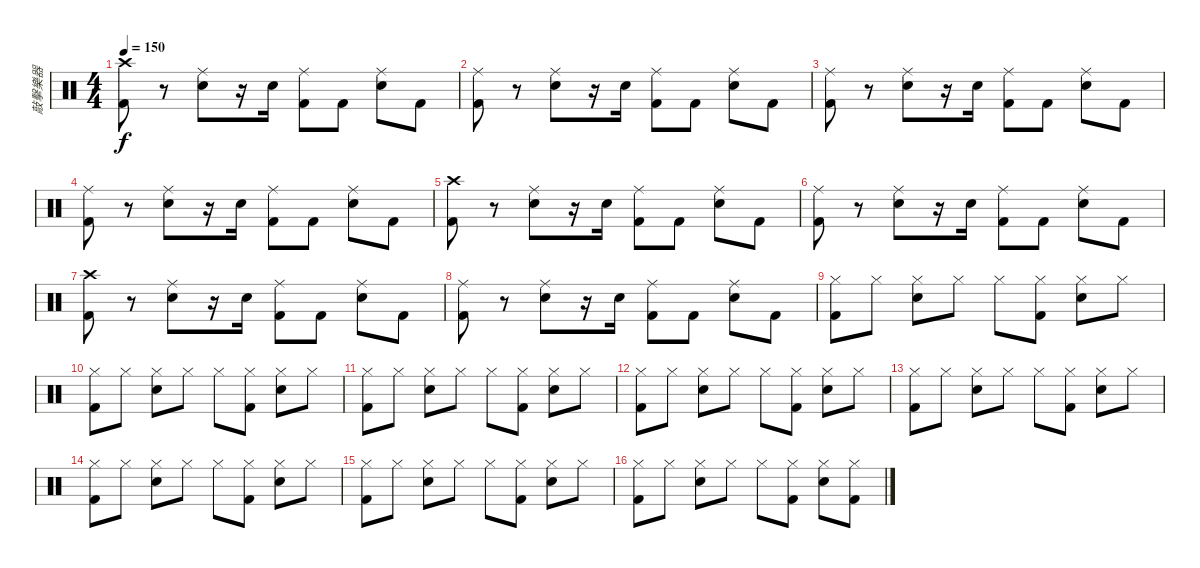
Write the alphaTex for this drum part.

\track ("敲擊樂器" "敲擊樂器") {instrument percussion}
\staff {score}
\articulation defaults
\ts (4 4)
\tempo 150
\clef neutral
\ks c
("Crash high (hit)" "Kick (hit) 2").8{dy f} r.8 ("Ride (middle)" "Electric Snare (hit)").8 r.16 "Electric Snare (hit)".16 ("Ride (middle)" "Kick (hit) 2").8 "Kick (hit) 2".8 ("Ride (middle)" "Electric Snare (hit)").8 "Kick (hit) 2".8 |
("Ride (middle)" "Kick (hit) 2").8 r.8 ("Ride (middle)" "Electric Snare (hit)").8 r.16 "Electric Snare (hit)".16 ("Ride (middle)" "Kick (hit) 2").8 "Kick (hit) 2".8 ("Ride (middle)" "Electric Snare (hit)").8 "Kick (hit) 2".8 |
("Ride (middle)" "Kick (hit) 2").8 r.8 ("Ride (middle)" "Electric Snare (hit)").8 r.16 "Electric Snare (hit)".16 ("Ride (middle)" "Kick (hit) 2").8 "Kick (hit) 2".8 ("Ride (middle)" "Electric Snare (hit)").8 "Kick (hit) 2".8 |
("Ride (middle)" "Kick (hit) 2").8 r.8 ("Ride (middle)" "Electric Snare (hit)").8 r.16 "Electric Snare (hit)".16 ("Ride (middle)" "Kick (hit) 2").8 "Kick (hit) 2".8 ("Ride (middle)" "Electric Snare (hit)").8 "Kick (hit) 2".8 |
("Crash high (hit)" "Kick (hit) 2").8 r.8 ("Ride (middle)" "Electric Snare (hit)").8 r.16 "Electric Snare (hit)".16 ("Ride (middle)" "Kick (hit) 2").8 "Kick (hit) 2".8 ("Ride (middle)" "Electric Snare (hit)").8 "Kick (hit) 2".8 |
("Ride (middle)" "Kick (hit) 2").8 r.8 ("Ride (middle)" "Electric Snare (hit)").8 r.16 "Electric Snare (hit)".16 ("Ride (middle)" "Kick (hit) 2").8 "Kick (hit) 2".8 ("Ride (middle)" "Electric Snare (hit)").8 "Kick (hit) 2".8 |
("Crash high (hit)" "Kick (hit) 2").8 r.8 ("Ride (middle)" "Electric Snare (hit)").8 r.16 "Electric Snare (hit)".16 ("Ride (middle)" "Kick (hit) 2").8 "Kick (hit) 2".8 ("Ride (middle)" "Electric Snare (hit)").8 "Kick (hit) 2".8 |
("Ride (middle)" "Kick (hit) 2").8 r.8 ("Ride (middle)" "Electric Snare (hit)").8 r.16 "Electric Snare (hit)".16 ("Ride (middle)" "Kick (hit) 2").8 "Kick (hit) 2".8 ("Ride (middle)" "Electric Snare (hit)").8 "Kick (hit) 2".8 |
("Hi-Hat (closed)" "Kick (hit) 2").8 "Hi-Hat (closed)".8 ("Hi-Hat (closed)" "Electric Snare (hit)").8 "Hi-Hat (closed)".8 "Hi-Hat (closed)".8 ("Hi-Hat (closed)" "Kick (hit) 2").8 ("Hi-Hat (closed)" "Electric Snare (hit)").8 "Hi-Hat (closed)".8 |
("Hi-Hat (closed)" "Kick (hit) 2").8 "Hi-Hat (closed)".8 ("Hi-Hat (closed)" "Electric Snare (hit)").8 "Hi-Hat (closed)".8 "Hi-Hat (closed)".8 ("Hi-Hat (closed)" "Kick (hit) 2").8 ("Hi-Hat (closed)" "Electric Snare (hit)").8 "Hi-Hat (closed)".8 |
("Hi-Hat (closed)" "Kick (hit) 2").8 "Hi-Hat (closed)".8 ("Hi-Hat (closed)" "Electric Snare (hit)").8 "Hi-Hat (closed)".8 "Hi-Hat (closed)".8 ("Hi-Hat (closed)" "Kick (hit) 2").8 ("Hi-Hat (closed)" "Electric Snare (hit)").8 "Hi-Hat (closed)".8 |
("Hi-Hat (closed)" "Kick (hit) 2").8 "Hi-Hat (closed)".8 ("Hi-Hat (closed)" "Electric Snare (hit)").8 "Hi-Hat (closed)".8 "Hi-Hat (closed)".8 ("Hi-Hat (closed)" "Kick (hit) 2").8 ("Hi-Hat (closed)" "Electric Snare (hit)").8 "Hi-Hat (closed)".8 |
("Hi-Hat (closed)" "Kick (hit) 2").8 "Hi-Hat (closed)".8 ("Hi-Hat (closed)" "Electric Snare (hit)").8 "Hi-Hat (closed)".8 "Hi-Hat (closed)".8 ("Hi-Hat (closed)" "Kick (hit) 2").8 ("Hi-Hat (closed)" "Electric Snare (hit)").8 "Hi-Hat (closed)".8 |
("Hi-Hat (closed)" "Kick (hit) 2").8 "Hi-Hat (closed)".8 ("Hi-Hat (closed)" "Electric Snare (hit)").8 "Hi-Hat (closed)".8 "Hi-Hat (closed)".8 ("Hi-Hat (closed)" "Kick (hit) 2").8 ("Hi-Hat (closed)" "Electric Snare (hit)").8 "Hi-Hat (closed)".8 |
("Hi-Hat (closed)" "Kick (hit) 2").8 "Hi-Hat (closed)".8 ("Hi-Hat (closed)" "Electric Snare (hit)").8 "Hi-Hat (closed)".8 "Hi-Hat (closed)".8 ("Hi-Hat (closed)" "Kick (hit) 2").8 ("Hi-Hat (closed)" "Electric Snare (hit)").8 "Hi-Hat (closed)".8 |
("Hi-Hat (closed)" "Kick (hit) 2").8 "Hi-Hat (closed)".8 ("Hi-Hat (closed)" "Electric Snare (hit)").8 "Hi-Hat (closed)".8 "Hi-Hat (closed)".8 ("Hi-Hat (closed)" "Kick (hit) 2").8 ("Hi-Hat (closed)" "Electric Snare (hit)").8 ("Hi-Hat (closed)" "Kick (hit) 2").8
